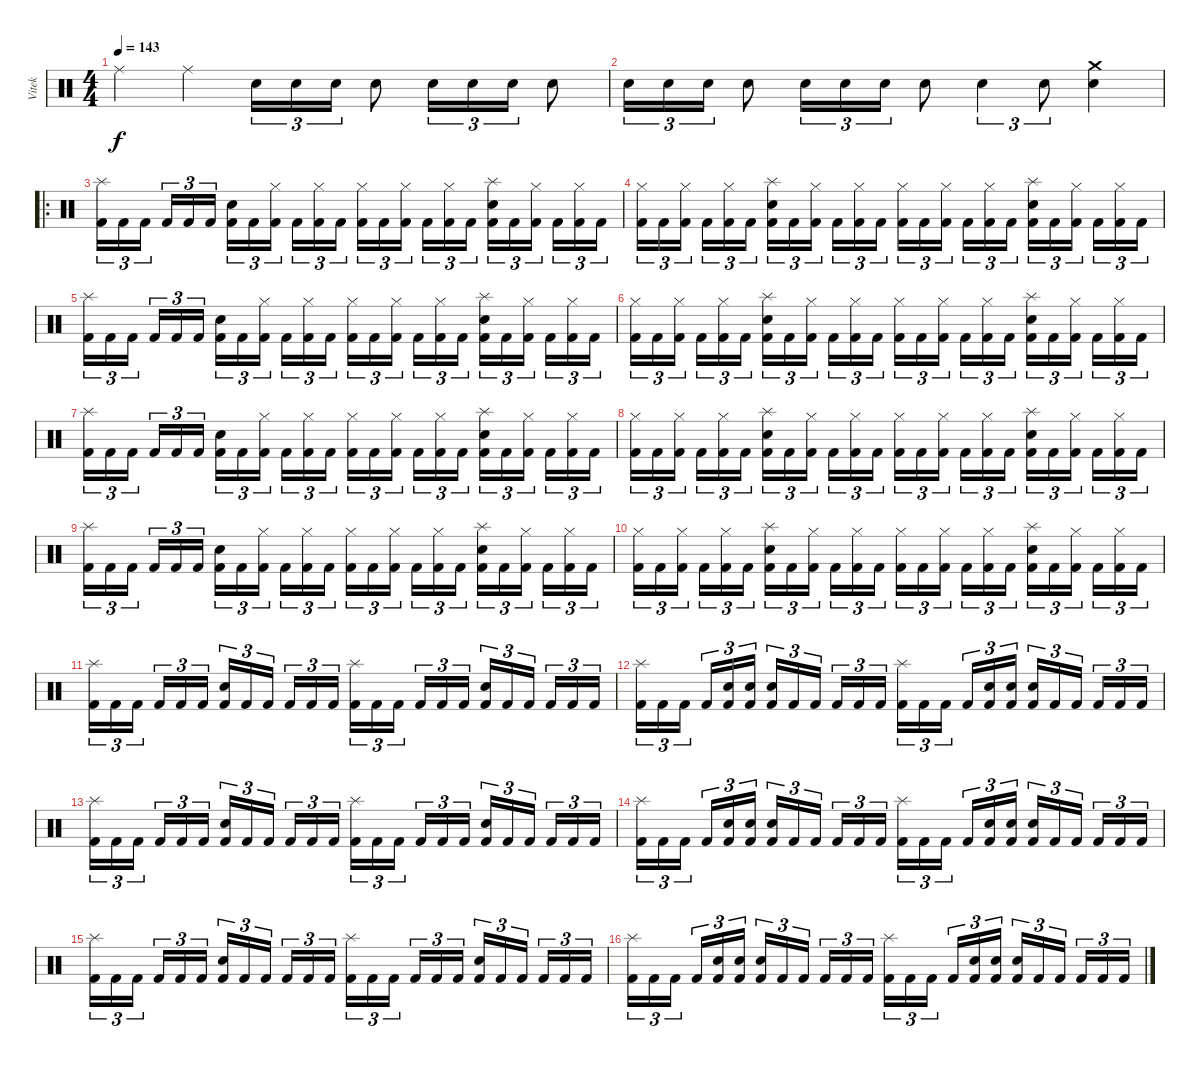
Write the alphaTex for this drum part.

\track ("Vitek" "Vitek") {instrument percussion}
\staff {score}
\articulation defaults
\ts (4 4)
\tempo 143
\clef neutral
\ks c "Ride (middle)".4{dy f} "Ride (middle)".4 "Electric Snare (hit)".16{tu (3 2)} "Electric Snare (hit)".16{tu (3 2)} "Electric Snare (hit)".16{tu (3 2)} "Electric Snare (hit)".8 "Electric Snare (hit)".16{tu (3 2)} "Electric Snare (hit)".16{tu (3 2)} "Electric Snare (hit)".16{tu (3 2)} "Electric Snare (hit)".8
|
"Electric Snare (hit)".16{tu (3 2)} "Electric Snare (hit)".16{tu (3 2)} "Electric Snare (hit)".16{tu (3 2)} "Electric Snare (hit)".8 "Electric Snare (hit)".16{tu (3 2)} "Electric Snare (hit)".16{tu (3 2)} "Electric Snare (hit)".16{tu (3 2)} "Electric Snare (hit)".8 "Electric Snare (hit)".4{tu (3 2)} "Electric Snare (hit)".8{tu (3 2)} ("Crash medium (hit)" "Electric Snare (hit)").4 |
\ro
("Splash (hit)" "Kick (hit) 2").16{tu (3 2)} "Kick (hit) 2".16{tu (3 2)} "Kick (hit) 2".16{tu (3 2) beam splitsecondary} "Kick (hit) 2".16{tu (3 2)} "Kick (hit) 2".16{tu (3 2)} "Kick (hit) 2".16{tu (3 2)} ("Electric Snare (hit)" "Kick (hit) 2").16{tu (3 2)} "Kick (hit) 2".16{tu (3 2)} ("Hi-Hat (closed)" "Kick (hit) 2").16{tu (3 2) beam splitsecondary} "Kick (hit) 2".16{tu (3 2)} ("Hi-Hat (closed)" "Kick (hit) 2").16{tu (3 2)} "Kick (hit) 2".16{tu (3 2)} ("Hi-Hat (closed)" "Kick (hit) 2").16{tu (3 2)} "Kick (hit) 2".16{tu (3 2)} ("Hi-Hat (closed)" "Kick (hit) 2").16{tu (3 2) beam splitsecondary} "Kick (hit) 2".16{tu (3 2)} ("Hi-Hat (closed)" "Kick (hit) 2").16{tu (3 2)} "Kick (hit) 2".16{tu (3 2)} ("Splash (hit)" "Electric Snare (hit)" "Kick (hit) 2").16{tu (3 2)} "Kick (hit) 2".16{tu (3 2)} ("Hi-Hat (closed)" "Kick (hit) 2").16{tu (3 2) beam splitsecondary} "Kick (hit) 2".16{tu (3 2)} ("Hi-Hat (closed)" "Kick (hit) 2").16{tu (3 2)} "Kick (hit) 2".16{tu (3 2)} |
("Hi-Hat (closed)" "Kick (hit) 2").16{tu (3 2)} "Kick (hit) 2".16{tu (3 2)} ("Hi-Hat (closed)" "Kick (hit) 2").16{tu (3 2) beam splitsecondary} "Kick (hit) 2".16{tu (3 2)} ("Hi-Hat (closed)" "Kick (hit) 2").16{tu (3 2)} "Kick (hit) 2".16{tu (3 2)} ("Splash (hit)" "Electric Snare (hit)" "Kick (hit) 2").16{tu (3 2)} "Kick (hit) 2".16{tu (3 2)} ("Hi-Hat (closed)" "Kick (hit) 2").16{tu (3 2) beam splitsecondary} "Kick (hit) 2".16{tu (3 2)} ("Hi-Hat (closed)" "Kick (hit) 2").16{tu (3 2)} "Kick (hit) 2".16{tu (3 2)} ("Hi-Hat (closed)" "Kick (hit) 2").16{tu (3 2)} "Kick (hit) 2".16{tu (3 2)} ("Hi-Hat (closed)" "Kick (hit) 2").16{tu (3 2) beam splitsecondary} "Kick (hit) 2".16{tu (3 2)} ("Hi-Hat (closed)" "Kick (hit) 2").16{tu (3 2)} "Kick (hit) 2".16{tu (3 2)} ("Splash (hit)" "Electric Snare (hit)" "Kick (hit) 2").16{tu (3 2)} "Kick (hit) 2".16{tu (3 2)} ("Hi-Hat (closed)" "Kick (hit) 2").16{tu (3 2) beam splitsecondary} "Kick (hit) 2".16{tu (3 2)} ("Hi-Hat (closed)" "Kick (hit) 2").16{tu (3 2)} "Kick (hit) 2".16{tu (3 2)} |
("Splash (hit)" "Kick (hit) 2").16{tu (3 2)} "Kick (hit) 2".16{tu (3 2)} "Kick (hit) 2".16{tu (3 2) beam splitsecondary} "Kick (hit) 2".16{tu (3 2)} "Kick (hit) 2".16{tu (3 2)} "Kick (hit) 2".16{tu (3 2)} ("Electric Snare (hit)" "Kick (hit) 2").16{tu (3 2)} "Kick (hit) 2".16{tu (3 2)} ("Hi-Hat (closed)" "Kick (hit) 2").16{tu (3 2) beam splitsecondary} "Kick (hit) 2".16{tu (3 2)} ("Hi-Hat (closed)" "Kick (hit) 2").16{tu (3 2)} "Kick (hit) 2".16{tu (3 2)} ("Hi-Hat (closed)" "Kick (hit) 2").16{tu (3 2)} "Kick (hit) 2".16{tu (3 2)} ("Hi-Hat (closed)" "Kick (hit) 2").16{tu (3 2) beam splitsecondary} "Kick (hit) 2".16{tu (3 2)} ("Hi-Hat (closed)" "Kick (hit) 2").16{tu (3 2)} "Kick (hit) 2".16{tu (3 2)} ("Splash (hit)" "Electric Snare (hit)" "Kick (hit) 2").16{tu (3 2)} "Kick (hit) 2".16{tu (3 2)} ("Hi-Hat (closed)" "Kick (hit) 2").16{tu (3 2) beam splitsecondary} "Kick (hit) 2".16{tu (3 2)} ("Hi-Hat (closed)" "Kick (hit) 2").16{tu (3 2)} "Kick (hit) 2".16{tu (3 2)} |
("Hi-Hat (closed)" "Kick (hit) 2").16{tu (3 2)} "Kick (hit) 2".16{tu (3 2)} ("Hi-Hat (closed)" "Kick (hit) 2").16{tu (3 2) beam splitsecondary} "Kick (hit) 2".16{tu (3 2)} ("Hi-Hat (closed)" "Kick (hit) 2").16{tu (3 2)} "Kick (hit) 2".16{tu (3 2)} ("Splash (hit)" "Electric Snare (hit)" "Kick (hit) 2").16{tu (3 2)} "Kick (hit) 2".16{tu (3 2)} ("Hi-Hat (closed)" "Kick (hit) 2").16{tu (3 2) beam splitsecondary} "Kick (hit) 2".16{tu (3 2)} ("Hi-Hat (closed)" "Kick (hit) 2").16{tu (3 2)} "Kick (hit) 2".16{tu (3 2)} ("Hi-Hat (closed)" "Kick (hit) 2").16{tu (3 2)} "Kick (hit) 2".16{tu (3 2)} ("Hi-Hat (closed)" "Kick (hit) 2").16{tu (3 2) beam splitsecondary} "Kick (hit) 2".16{tu (3 2)} ("Hi-Hat (closed)" "Kick (hit) 2").16{tu (3 2)} "Kick (hit) 2".16{tu (3 2)} ("Splash (hit)" "Electric Snare (hit)" "Kick (hit) 2").16{tu (3 2)} "Kick (hit) 2".16{tu (3 2)} ("Hi-Hat (closed)" "Kick (hit) 2").16{tu (3 2) beam splitsecondary} "Kick (hit) 2".16{tu (3 2)} ("Hi-Hat (closed)" "Kick (hit) 2").16{tu (3 2)} "Kick (hit) 2".16{tu (3 2)} |
("Splash (hit)" "Kick (hit) 2").16{tu (3 2)} "Kick (hit) 2".16{tu (3 2)} "Kick (hit) 2".16{tu (3 2) beam splitsecondary} "Kick (hit) 2".16{tu (3 2)} "Kick (hit) 2".16{tu (3 2)} "Kick (hit) 2".16{tu (3 2)} ("Electric Snare (hit)" "Kick (hit) 2").16{tu (3 2)} "Kick (hit) 2".16{tu (3 2)} ("Hi-Hat (closed)" "Kick (hit) 2").16{tu (3 2) beam splitsecondary} "Kick (hit) 2".16{tu (3 2)} ("Hi-Hat (closed)" "Kick (hit) 2").16{tu (3 2)} "Kick (hit) 2".16{tu (3 2)} ("Hi-Hat (closed)" "Kick (hit) 2").16{tu (3 2)} "Kick (hit) 2".16{tu (3 2)} ("Hi-Hat (closed)" "Kick (hit) 2").16{tu (3 2) beam splitsecondary} "Kick (hit) 2".16{tu (3 2)} ("Hi-Hat (closed)" "Kick (hit) 2").16{tu (3 2)} "Kick (hit) 2".16{tu (3 2)} ("Splash (hit)" "Electric Snare (hit)" "Kick (hit) 2").16{tu (3 2)} "Kick (hit) 2".16{tu (3 2)} ("Hi-Hat (closed)" "Kick (hit) 2").16{tu (3 2) beam splitsecondary} "Kick (hit) 2".16{tu (3 2)} ("Hi-Hat (closed)" "Kick (hit) 2").16{tu (3 2)} "Kick (hit) 2".16{tu (3 2)} |
("Hi-Hat (closed)" "Kick (hit) 2").16{tu (3 2)} "Kick (hit) 2".16{tu (3 2)} ("Hi-Hat (closed)" "Kick (hit) 2").16{tu (3 2) beam splitsecondary} "Kick (hit) 2".16{tu (3 2)} ("Hi-Hat (closed)" "Kick (hit) 2").16{tu (3 2)} "Kick (hit) 2".16{tu (3 2)} ("Splash (hit)" "Electric Snare (hit)" "Kick (hit) 2").16{tu (3 2)} "Kick (hit) 2".16{tu (3 2)} ("Hi-Hat (closed)" "Kick (hit) 2").16{tu (3 2) beam splitsecondary} "Kick (hit) 2".16{tu (3 2)} ("Hi-Hat (closed)" "Kick (hit) 2").16{tu (3 2)} "Kick (hit) 2".16{tu (3 2)} ("Hi-Hat (closed)" "Kick (hit) 2").16{tu (3 2)} "Kick (hit) 2".16{tu (3 2)} ("Hi-Hat (closed)" "Kick (hit) 2").16{tu (3 2) beam splitsecondary} "Kick (hit) 2".16{tu (3 2)} ("Hi-Hat (closed)" "Kick (hit) 2").16{tu (3 2)} "Kick (hit) 2".16{tu (3 2)} ("Splash (hit)" "Electric Snare (hit)" "Kick (hit) 2").16{tu (3 2)} "Kick (hit) 2".16{tu (3 2)} ("Hi-Hat (closed)" "Kick (hit) 2").16{tu (3 2) beam splitsecondary} "Kick (hit) 2".16{tu (3 2)} ("Hi-Hat (closed)" "Kick (hit) 2").16{tu (3 2)} "Kick (hit) 2".16{tu (3 2)} |
("Splash (hit)" "Kick (hit) 2").16{tu (3 2)} "Kick (hit) 2".16{tu (3 2)} "Kick (hit) 2".16{tu (3 2) beam splitsecondary} "Kick (hit) 2".16{tu (3 2)} "Kick (hit) 2".16{tu (3 2)} "Kick (hit) 2".16{tu (3 2)} ("Electric Snare (hit)" "Kick (hit) 2").16{tu (3 2)} "Kick (hit) 2".16{tu (3 2)} ("Hi-Hat (closed)" "Kick (hit) 2").16{tu (3 2) beam splitsecondary} "Kick (hit) 2".16{tu (3 2)} ("Hi-Hat (closed)" "Kick (hit) 2").16{tu (3 2)} "Kick (hit) 2".16{tu (3 2)} ("Hi-Hat (closed)" "Kick (hit) 2").16{tu (3 2)} "Kick (hit) 2".16{tu (3 2)} ("Hi-Hat (closed)" "Kick (hit) 2").16{tu (3 2) beam splitsecondary} "Kick (hit) 2".16{tu (3 2)} ("Hi-Hat (closed)" "Kick (hit) 2").16{tu (3 2)} "Kick (hit) 2".16{tu (3 2)} ("Splash (hit)" "Electric Snare (hit)" "Kick (hit) 2").16{tu (3 2)} "Kick (hit) 2".16{tu (3 2)} ("Hi-Hat (closed)" "Kick (hit) 2").16{tu (3 2) beam splitsecondary} "Kick (hit) 2".16{tu (3 2)} ("Hi-Hat (closed)" "Kick (hit) 2").16{tu (3 2)} "Kick (hit) 2".16{tu (3 2)} |
("Hi-Hat (closed)" "Kick (hit) 2").16{tu (3 2)} "Kick (hit) 2".16{tu (3 2)} ("Hi-Hat (closed)" "Kick (hit) 2").16{tu (3 2) beam splitsecondary} "Kick (hit) 2".16{tu (3 2)} ("Hi-Hat (closed)" "Kick (hit) 2").16{tu (3 2)} "Kick (hit) 2".16{tu (3 2)} ("Splash (hit)" "Electric Snare (hit)" "Kick (hit) 2").16{tu (3 2)} "Kick (hit) 2".16{tu (3 2)} ("Hi-Hat (closed)" "Kick (hit) 2").16{tu (3 2) beam splitsecondary} "Kick (hit) 2".16{tu (3 2)} ("Hi-Hat (closed)" "Kick (hit) 2").16{tu (3 2)} "Kick (hit) 2".16{tu (3 2)} ("Hi-Hat (closed)" "Kick (hit) 2").16{tu (3 2)} "Kick (hit) 2".16{tu (3 2)} ("Hi-Hat (closed)" "Kick (hit) 2").16{tu (3 2) beam splitsecondary} "Kick (hit) 2".16{tu (3 2)} ("Hi-Hat (closed)" "Kick (hit) 2").16{tu (3 2)} "Kick (hit) 2".16{tu (3 2)} ("Splash (hit)" "Electric Snare (hit)" "Kick (hit) 2").16{tu (3 2)} "Kick (hit) 2".16{tu (3 2)} ("Hi-Hat (closed)" "Kick (hit) 2").16{tu (3 2) beam splitsecondary} "Kick (hit) 2".16{tu (3 2)} ("Hi-Hat (closed)" "Kick (hit) 2").16{tu (3 2)} "Kick (hit) 2".16{tu (3 2)} |
("Splash (hit)" "Kick (hit) 2").16{tu (3 2)} "Kick (hit) 2".16{tu (3 2)} "Kick (hit) 2".16{tu (3 2) beam splitsecondary} "Kick (hit) 2".16{tu (3 2)} "Kick (hit) 2".16{tu (3 2)} "Kick (hit) 2".16{tu (3 2)} ("Electric Snare (hit)" "Kick (hit) 2").16{tu (3 2)} "Kick (hit) 2".16{tu (3 2)} "Kick (hit) 2".16{tu (3 2) beam splitsecondary} "Kick (hit) 2".16{tu (3 2)} "Kick (hit) 2".16{tu (3 2)} "Kick (hit) 2".16{tu (3 2)} ("Splash (hit)" "Kick (hit) 2").16{tu (3 2)} "Kick (hit) 2".16{tu (3 2)} "Kick (hit) 2".16{tu (3 2) beam splitsecondary} "Kick (hit) 2".16{tu (3 2)} "Kick (hit) 2".16{tu (3 2)} "Kick (hit) 2".16{tu (3 2)} ("Electric Snare (hit)" "Kick (hit) 2").16{tu (3 2)} "Kick (hit) 2".16{tu (3 2)} "Kick (hit) 2".16{tu (3 2) beam splitsecondary} "Kick (hit) 2".16{tu (3 2)} "Kick (hit) 2".16{tu (3 2)} "Kick (hit) 2".16{tu (3 2)} |
("Splash (hit)" "Kick (hit) 2").16{tu (3 2)} "Kick (hit) 2".16{tu (3 2)} "Kick (hit) 2".16{tu (3 2) beam splitsecondary} "Kick (hit) 2".16{tu (3 2)} ("Electric Snare (hit)" "Kick (hit) 2").16{tu (3 2)} ("Electric Snare (hit)" "Kick (hit) 2").16{tu (3 2)} ("Electric Snare (hit)" "Kick (hit) 2").16{tu (3 2)} "Kick (hit) 2".16{tu (3 2)} "Kick (hit) 2".16{tu (3 2) beam splitsecondary} "Kick (hit) 2".16{tu (3 2)} "Kick (hit) 2".16{tu (3 2)} "Kick (hit) 2".16{tu (3 2)} ("Splash (hit)" "Kick (hit) 2").16{tu (3 2)} "Kick (hit) 2".16{tu (3 2)} "Kick (hit) 2".16{tu (3 2) beam splitsecondary} "Kick (hit) 2".16{tu (3 2)} ("Electric Snare (hit)" "Kick (hit) 2").16{tu (3 2)} ("Electric Snare (hit)" "Kick (hit) 2").16{tu (3 2)} ("Electric Snare (hit)" "Kick (hit) 2").16{tu (3 2)} "Kick (hit) 2".16{tu (3 2)} "Kick (hit) 2".16{tu (3 2) beam splitsecondary} "Kick (hit) 2".16{tu (3 2)} "Kick (hit) 2".16{tu (3 2)} "Kick (hit) 2".16{tu (3 2)} |
("Splash (hit)" "Kick (hit) 2").16{tu (3 2)} "Kick (hit) 2".16{tu (3 2)} "Kick (hit) 2".16{tu (3 2) beam splitsecondary} "Kick (hit) 2".16{tu (3 2)} "Kick (hit) 2".16{tu (3 2)} "Kick (hit) 2".16{tu (3 2)} ("Electric Snare (hit)" "Kick (hit) 2").16{tu (3 2)} "Kick (hit) 2".16{tu (3 2)} "Kick (hit) 2".16{tu (3 2) beam splitsecondary} "Kick (hit) 2".16{tu (3 2)} "Kick (hit) 2".16{tu (3 2)} "Kick (hit) 2".16{tu (3 2)} ("Splash (hit)" "Kick (hit) 2").16{tu (3 2)} "Kick (hit) 2".16{tu (3 2)} "Kick (hit) 2".16{tu (3 2) beam splitsecondary} "Kick (hit) 2".16{tu (3 2)} "Kick (hit) 2".16{tu (3 2)} "Kick (hit) 2".16{tu (3 2)} ("Electric Snare (hit)" "Kick (hit) 2").16{tu (3 2)} "Kick (hit) 2".16{tu (3 2)} "Kick (hit) 2".16{tu (3 2) beam splitsecondary} "Kick (hit) 2".16{tu (3 2)} "Kick (hit) 2".16{tu (3 2)} "Kick (hit) 2".16{tu (3 2)} |
("Splash (hit)" "Kick (hit) 2").16{tu (3 2)} "Kick (hit) 2".16{tu (3 2)} "Kick (hit) 2".16{tu (3 2) beam splitsecondary} "Kick (hit) 2".16{tu (3 2)} ("Electric Snare (hit)" "Kick (hit) 2").16{tu (3 2)} ("Electric Snare (hit)" "Kick (hit) 2").16{tu (3 2)} ("Electric Snare (hit)" "Kick (hit) 2").16{tu (3 2)} "Kick (hit) 2".16{tu (3 2)} "Kick (hit) 2".16{tu (3 2) beam splitsecondary} "Kick (hit) 2".16{tu (3 2)} "Kick (hit) 2".16{tu (3 2)} "Kick (hit) 2".16{tu (3 2)} ("Splash (hit)" "Kick (hit) 2").16{tu (3 2)} "Kick (hit) 2".16{tu (3 2)} "Kick (hit) 2".16{tu (3 2) beam splitsecondary} "Kick (hit) 2".16{tu (3 2)} ("Electric Snare (hit)" "Kick (hit) 2").16{tu (3 2)} ("Electric Snare (hit)" "Kick (hit) 2").16{tu (3 2)} ("Electric Snare (hit)" "Kick (hit) 2").16{tu (3 2)} "Kick (hit) 2".16{tu (3 2)} "Kick (hit) 2".16{tu (3 2) beam splitsecondary} "Kick (hit) 2".16{tu (3 2)} "Kick (hit) 2".16{tu (3 2)} "Kick (hit) 2".16{tu (3 2)} |
("Splash (hit)" "Kick (hit) 2").16{tu (3 2)} "Kick (hit) 2".16{tu (3 2)} "Kick (hit) 2".16{tu (3 2) beam splitsecondary} "Kick (hit) 2".16{tu (3 2)} "Kick (hit) 2".16{tu (3 2)} "Kick (hit) 2".16{tu (3 2)} ("Electric Snare (hit)" "Kick (hit) 2").16{tu (3 2)} "Kick (hit) 2".16{tu (3 2)} "Kick (hit) 2".16{tu (3 2) beam splitsecondary} "Kick (hit) 2".16{tu (3 2)} "Kick (hit) 2".16{tu (3 2)} "Kick (hit) 2".16{tu (3 2)} ("Splash (hit)" "Kick (hit) 2").16{tu (3 2)} "Kick (hit) 2".16{tu (3 2)} "Kick (hit) 2".16{tu (3 2) beam splitsecondary} "Kick (hit) 2".16{tu (3 2)} "Kick (hit) 2".16{tu (3 2)} "Kick (hit) 2".16{tu (3 2)} ("Electric Snare (hit)" "Kick (hit) 2").16{tu (3 2)} "Kick (hit) 2".16{tu (3 2)} "Kick (hit) 2".16{tu (3 2) beam splitsecondary} "Kick (hit) 2".16{tu (3 2)} "Kick (hit) 2".16{tu (3 2)} "Kick (hit) 2".16{tu (3 2)} |
("Splash (hit)" "Kick (hit) 2").16{tu (3 2)} "Kick (hit) 2".16{tu (3 2)} "Kick (hit) 2".16{tu (3 2) beam splitsecondary} "Kick (hit) 2".16{tu (3 2)} ("Electric Snare (hit)" "Kick (hit) 2").16{tu (3 2)} ("Electric Snare (hit)" "Kick (hit) 2").16{tu (3 2)} ("Electric Snare (hit)" "Kick (hit) 2").16{tu (3 2)} "Kick (hit) 2".16{tu (3 2)} "Kick (hit) 2".16{tu (3 2) beam splitsecondary} "Kick (hit) 2".16{tu (3 2)} "Kick (hit) 2".16{tu (3 2)} "Kick (hit) 2".16{tu (3 2)} ("Splash (hit)" "Kick (hit) 2").16{tu (3 2)} "Kick (hit) 2".16{tu (3 2)} "Kick (hit) 2".16{tu (3 2) beam splitsecondary} "Kick (hit) 2".16{tu (3 2)} ("Electric Snare (hit)" "Kick (hit) 2").16{tu (3 2)} ("Electric Snare (hit)" "Kick (hit) 2").16{tu (3 2)} ("Electric Snare (hit)" "Kick (hit) 2").16{tu (3 2)} "Kick (hit) 2".16{tu (3 2)} "Kick (hit) 2".16{tu (3 2) beam splitsecondary} "Kick (hit) 2".16{tu (3 2)} "Kick (hit) 2".16{tu (3 2)} "Kick (hit) 2".16{tu (3 2)}
